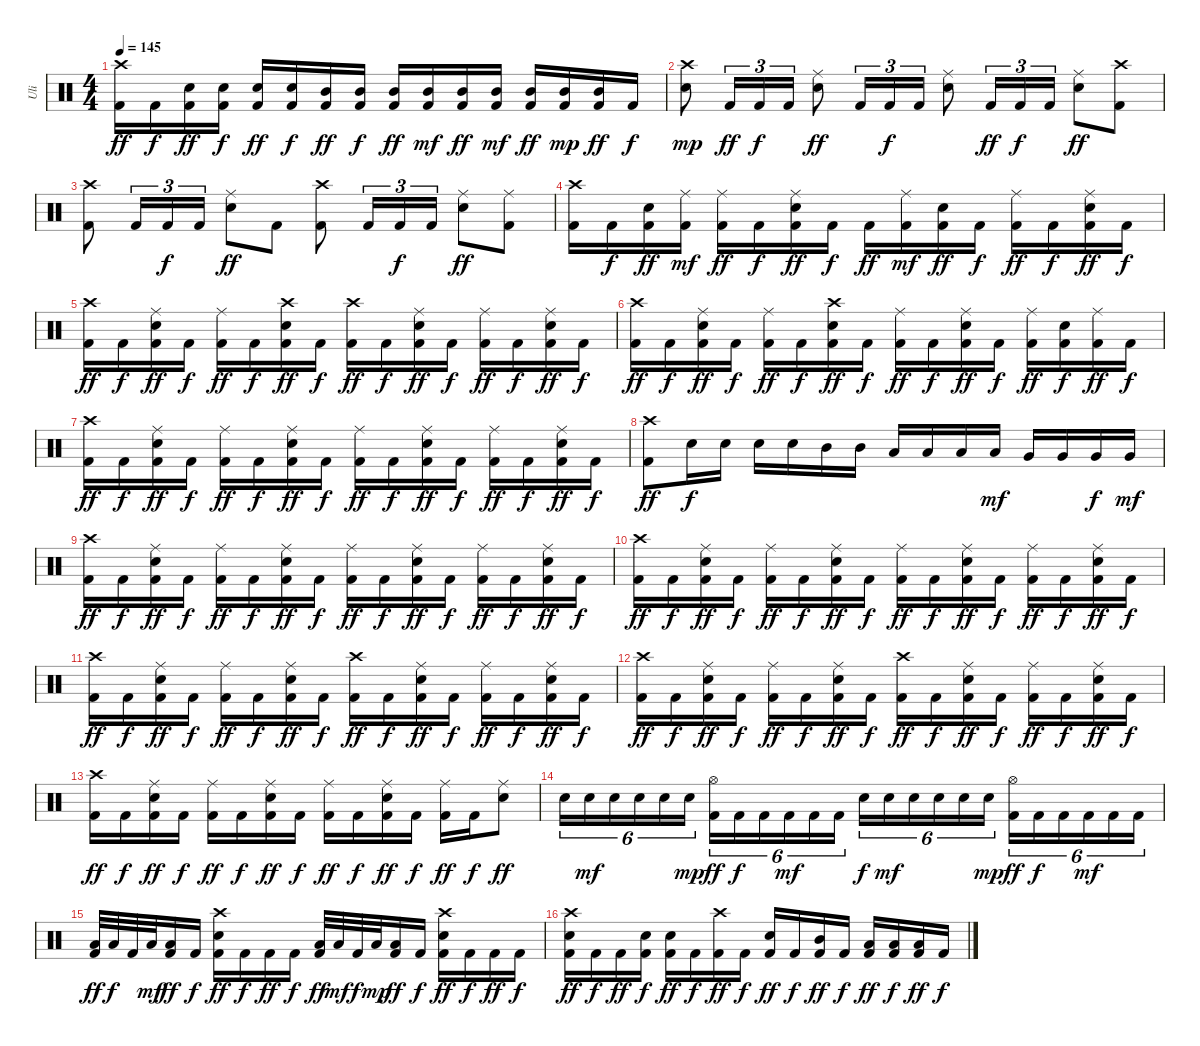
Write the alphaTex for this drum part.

\track ("Uli" "Uli") {instrument percussion}
\staff {score}
\articulation defaults
\ts (4 4)
\tempo 145
\clef neutral
\ks c
("Crash high (hit)" "Kick (hit) 2").16{dy ff} "Kick (hit) 2".16{dy f} ("Electric Snare (hit)" "Kick (hit) 2").16{dy ff} ("Electric Snare (hit)" "Kick (hit) 2").16{dy f} ("Electric Snare (hit)" "Kick (hit) 2").16{dy ff} ("Electric Snare (hit)" "Kick (hit) 2").16{dy f} ("Mid Tom (hit)" "Kick (hit) 2").16{dy ff} ("Mid Tom (hit)" "Kick (hit) 2").16{dy f} ("Mid Tom (hit)" "Kick (hit) 2").16{dy ff} ("Mid Tom (hit)" "Kick (hit) 2").16{dy mf} ("Mid Tom (hit)" "Kick (hit) 2").16{dy ff} ("Mid Tom (hit)" "Kick (hit) 2").16{dy mf} ("Mid Tom (hit)" "Kick (hit) 2").16{dy ff} ("Mid Tom (hit)" "Kick (hit) 2").16{dy mp} ("Mid Tom (hit)" "Kick (hit) 2").16{dy ff} "Kick (hit) 2".16{dy f} |
("Crash high (hit)" "Electric Snare (hit)").8{dy mp} "Kick (hit) 2".16{tu (3 2) dy ff} "Kick (hit) 2".16{tu (3 2) dy f} "Kick (hit) 2".16{tu (3 2)} ("Ride (middle)" "Electric Snare (hit)").8{dy ff} "Kick (hit) 2".16{tu (3 2)} "Kick (hit) 2".16{tu (3 2) dy f} "Kick (hit) 2".16{tu (3 2)} ("Ride (middle)" "Electric Snare (hit)").8 "Kick (hit) 2".16{tu (3 2) dy ff} "Kick (hit) 2".16{tu (3 2) dy f} "Kick (hit) 2".16{tu (3 2)} ("Ride (middle)" "Electric Snare (hit)").8{dy ff} ("Crash high (hit)" "Kick (hit) 2").8 |
("Crash high (hit)" "Kick (hit) 2").8 "Kick (hit) 2".16{tu (3 2)} "Kick (hit) 2".16{tu (3 2) dy f} "Kick (hit) 2".16{tu (3 2)} ("Ride (middle)" "Electric Snare (hit)").8{dy ff} "Kick (hit) 2".8 ("Crash high (hit)" "Kick (hit) 2").8 "Kick (hit) 2".16{tu (3 2)} "Kick (hit) 2".16{tu (3 2) dy f} "Kick (hit) 2".16{tu (3 2)} ("Ride (middle)" "Electric Snare (hit)").8{dy ff} ("Ride (middle)" "Kick (hit) 2").8 |
("Crash high (hit)" "Kick (hit) 2").16 "Kick (hit) 2".16{dy f} ("Electric Snare (hit)" "Kick (hit) 2").16{dy ff} ("Ride (middle)" "Kick (hit) 2").16{dy mf} ("Ride (middle)" "Kick (hit) 2").16{dy ff} "Kick (hit) 2".16{dy f} ("Ride (middle)" "Electric Snare (hit)" "Kick (hit) 2").16{dy ff} "Kick (hit) 2".16{dy f} "Kick (hit) 2".16{dy ff} ("Ride (middle)" "Kick (hit) 2").16{dy mf} ("Electric Snare (hit)" "Kick (hit) 2").16{dy ff} "Kick (hit) 2".16{dy f} ("Ride (middle)" "Kick (hit) 2").16{dy ff} "Kick (hit) 2".16{dy f} ("Ride (middle)" "Electric Snare (hit)" "Kick (hit) 2").16{dy ff} "Kick (hit) 2".16{dy f} |
("Crash high (hit)" "Kick (hit) 2").16{dy ff} "Kick (hit) 2".16{dy f} ("Ride (middle)" "Electric Snare (hit)" "Kick (hit) 2").16{dy ff} "Kick (hit) 2".16{dy f} ("Ride (middle)" "Kick (hit) 2").16{dy ff} "Kick (hit) 2".16{dy f} ("Crash high (hit)" "Electric Snare (hit)" "Kick (hit) 2").16{dy ff} "Kick (hit) 2".16{dy f} ("Crash high (hit)" "Kick (hit) 2").16{dy ff} "Kick (hit) 2".16{dy f} ("Ride (middle)" "Electric Snare (hit)" "Kick (hit) 2").16{dy ff} "Kick (hit) 2".16{dy f} ("Ride (middle)" "Kick (hit) 2").16{dy ff} "Kick (hit) 2".16{dy f} ("Ride (middle)" "Electric Snare (hit)" "Kick (hit) 2").16{dy ff} "Kick (hit) 2".16{dy f} |
("Crash high (hit)" "Kick (hit) 2").16{dy ff} "Kick (hit) 2".16{dy f} ("Ride (middle)" "Electric Snare (hit)" "Kick (hit) 2").16{dy ff} "Kick (hit) 2".16{dy f} ("Ride (middle)" "Kick (hit) 2").16{dy ff} "Kick (hit) 2".16{dy f} ("Crash high (hit)" "Electric Snare (hit)" "Kick (hit) 2").16{dy ff} "Kick (hit) 2".16{dy f} ("Ride (middle)" "Kick (hit) 2").16{dy ff} "Kick (hit) 2".16{dy f} ("Ride (middle)" "Electric Snare (hit)" "Kick (hit) 2").16{dy ff} "Kick (hit) 2".16{dy f} ("Ride (middle)" "Kick (hit) 2").16{dy ff} ("Electric Snare (hit)" "Kick (hit) 2").16{dy f} ("Ride (middle)" "Kick (hit) 2").16{dy ff} "Kick (hit) 2".16{dy f} |
("Crash high (hit)" "Kick (hit) 2").16{dy ff} "Kick (hit) 2".16{dy f} ("Ride (middle)" "Electric Snare (hit)" "Kick (hit) 2").16{dy ff} "Kick (hit) 2".16{dy f} ("Ride (middle)" "Kick (hit) 2").16{dy ff} "Kick (hit) 2".16{dy f} ("Ride (middle)" "Electric Snare (hit)" "Kick (hit) 2").16{dy ff} "Kick (hit) 2".16{dy f} ("Ride (middle)" "Kick (hit) 2").16{dy ff} "Kick (hit) 2".16{dy f} ("Ride (middle)" "Electric Snare (hit)" "Kick (hit) 2").16{dy ff} "Kick (hit) 2".16{dy f} ("Ride (middle)" "Kick (hit) 2").16{dy ff} "Kick (hit) 2".16{dy f} ("Ride (middle)" "Electric Snare (hit)" "Kick (hit) 2").16{dy ff} "Kick (hit) 2".16{dy f} |
("Crash high (hit)" "Kick (hit) 2").8{dy ff} "Electric Snare (hit)".16{dy f} "Electric Snare (hit)".16 "Electric Snare (hit)".16 "Electric Snare (hit)".16 "Mid Tom (hit)".16 "Mid Tom (hit)".16 "Low Tom (hit)".16 "Low Tom (hit)".16 "Low Tom (hit)".16 "Low Tom (hit)".16{dy mf} "Very Low Tom (hit)".16 "Very Low Tom (hit)".16 "Very Low Tom (hit)".16{dy f} "Very Low Tom (hit)".16{dy mf} |
("Crash high (hit)" "Kick (hit) 2").16{dy ff} "Kick (hit) 2".16{dy f} ("Ride (middle)" "Electric Snare (hit)" "Kick (hit) 2").16{dy ff} "Kick (hit) 2".16{dy f} ("Ride (middle)" "Kick (hit) 2").16{dy ff} "Kick (hit) 2".16{dy f} ("Ride (middle)" "Electric Snare (hit)" "Kick (hit) 2").16{dy ff} "Kick (hit) 2".16{dy f} ("Ride (middle)" "Kick (hit) 2").16{dy ff} "Kick (hit) 2".16{dy f} ("Ride (middle)" "Electric Snare (hit)" "Kick (hit) 2").16{dy ff} "Kick (hit) 2".16{dy f} ("Ride (middle)" "Kick (hit) 2").16{dy ff} "Kick (hit) 2".16{dy f} ("Ride (middle)" "Electric Snare (hit)" "Kick (hit) 2").16{dy ff} "Kick (hit) 2".16{dy f} |
("Crash high (hit)" "Kick (hit) 2").16{dy ff} "Kick (hit) 2".16{dy f} ("Ride (middle)" "Electric Snare (hit)" "Kick (hit) 2").16{dy ff} "Kick (hit) 2".16{dy f} ("Ride (middle)" "Kick (hit) 2").16{dy ff} "Kick (hit) 2".16{dy f} ("Ride (middle)" "Electric Snare (hit)" "Kick (hit) 2").16{dy ff} "Kick (hit) 2".16{dy f} ("Ride (middle)" "Kick (hit) 2").16{dy ff} "Kick (hit) 2".16{dy f} ("Ride (middle)" "Electric Snare (hit)" "Kick (hit) 2").16{dy ff} "Kick (hit) 2".16{dy f} ("Ride (middle)" "Kick (hit) 2").16{dy ff} "Kick (hit) 2".16{dy f} ("Ride (middle)" "Electric Snare (hit)" "Kick (hit) 2").16{dy ff} "Kick (hit) 2".16{dy f} |
("Crash high (hit)" "Kick (hit) 2").16{dy ff} "Kick (hit) 2".16{dy f} ("Ride (middle)" "Electric Snare (hit)" "Kick (hit) 2").16{dy ff} "Kick (hit) 2".16{dy f} ("Ride (middle)" "Kick (hit) 2").16{dy ff} "Kick (hit) 2".16{dy f} ("Ride (middle)" "Electric Snare (hit)" "Kick (hit) 2").16{dy ff} "Kick (hit) 2".16{dy f} ("Crash high (hit)" "Kick (hit) 2").16{dy ff} "Kick (hit) 2".16{dy f} ("Ride (middle)" "Electric Snare (hit)" "Kick (hit) 2").16{dy ff} "Kick (hit) 2".16{dy f} ("Ride (middle)" "Kick (hit) 2").16{dy ff} "Kick (hit) 2".16{dy f} ("Ride (middle)" "Electric Snare (hit)" "Kick (hit) 2").16{dy ff} "Kick (hit) 2".16{dy f} |
("Crash high (hit)" "Kick (hit) 2").16{dy ff} "Kick (hit) 2".16{dy f} ("Ride (middle)" "Electric Snare (hit)" "Kick (hit) 2").16{dy ff} "Kick (hit) 2".16{dy f} ("Ride (middle)" "Kick (hit) 2").16{dy ff} "Kick (hit) 2".16{dy f} ("Ride (middle)" "Electric Snare (hit)" "Kick (hit) 2").16{dy ff} "Kick (hit) 2".16{dy f} ("Crash high (hit)" "Kick (hit) 2").16{dy ff} "Kick (hit) 2".16{dy f} ("Ride (middle)" "Electric Snare (hit)" "Kick (hit) 2").16{dy ff} "Kick (hit) 2".16{dy f} ("Ride (middle)" "Kick (hit) 2").16{dy ff} "Kick (hit) 2".16{dy f} ("Ride (middle)" "Electric Snare (hit)" "Kick (hit) 2").16{dy ff} "Kick (hit) 2".16{dy f} |
("Crash high (hit)" "Kick (hit) 2").16{dy ff} "Kick (hit) 2".16{dy f} ("Ride (middle)" "Electric Snare (hit)" "Kick (hit) 2").16{dy ff} "Kick (hit) 2".16{dy f} ("Ride (middle)" "Kick (hit) 2").16{dy ff} "Kick (hit) 2".16{dy f} ("Ride (middle)" "Electric Snare (hit)" "Kick (hit) 2").16{dy ff} "Kick (hit) 2".16{dy f} ("Ride (middle)" "Kick (hit) 2").16{dy ff} "Kick (hit) 2".16{dy f} ("Ride (middle)" "Electric Snare (hit)" "Kick (hit) 2").16{dy ff} "Kick (hit) 2".16{dy f} ("Ride (middle)" "Kick (hit) 2").16{dy ff} "Kick (hit) 2".16{dy f} ("Ride (middle)" "Electric Snare (hit)").8{dy ff} |
"Electric Snare (hit)".16{tu (6 4)} "Electric Snare (hit)".16{tu (6 4) dy mf} "Electric Snare (hit)".16{tu (6 4)} "Electric Snare (hit)".16{tu (6 4)} "Electric Snare (hit)".16{tu (6 4)} "Electric Snare (hit)".16{tu (6 4) dy mp} ("Hi-Hat (open)" "Kick (hit) 2").16{tu (6 4) dy ff} "Kick (hit) 2".16{tu (6 4) dy f} "Kick (hit) 2".16{tu (6 4)} "Kick (hit) 2".16{tu (6 4) dy mf} "Kick (hit) 2".16{tu (6 4)} "Kick (hit) 2".16{tu (6 4)} "Electric Snare (hit)".16{tu (6 4) dy f} "Electric Snare (hit)".16{tu (6 4) dy mf} "Electric Snare (hit)".16{tu (6 4)} "Electric Snare (hit)".16{tu (6 4)} "Electric Snare (hit)".16{tu (6 4)} "Electric Snare (hit)".16{tu (6 4) dy mp} ("Hi-Hat (open)" "Kick (hit) 2").16{tu (6 4) dy ff} "Kick (hit) 2".16{tu (6 4) dy f} "Kick (hit) 2".16{tu (6 4)} "Kick (hit) 2".16{tu (6 4) dy mf} "Kick (hit) 2".16{tu (6 4)} "Kick (hit) 2".16{tu (6 4)} |
("Low Tom (hit)" "Kick (hit) 2").32{dy ff} "Low Tom (hit)".32{dy f} "Kick (hit) 2".32 "Low Tom (hit)".32{dy mf} ("Low Tom (hit)" "Kick (hit) 2").16{dy ff} "Kick (hit) 2".16{dy f} ("Crash high (hit)" "Electric Snare (hit)" "Kick (hit) 2").16{dy ff} "Kick (hit) 2".16{dy f} "Kick (hit) 2".16{dy ff} "Kick (hit) 2".16{dy f} ("Low Tom (hit)" "Kick (hit) 2").32{dy ff} "Low Tom (hit)".32{dy mf} "Kick (hit) 2".32{dy f} "Low Tom (hit)".32{dy mp} ("Low Tom (hit)" "Kick (hit) 2").16{dy ff} "Kick (hit) 2".16{dy f} ("Crash high (hit)" "Electric Snare (hit)" "Kick (hit) 2").16{dy ff} "Kick (hit) 2".16{dy f} "Kick (hit) 2".16{dy ff} "Kick (hit) 2".16{dy f} |
("Crash high (hit)" "Electric Snare (hit)" "Kick (hit) 2").16{dy ff} "Kick (hit) 2".16{dy f} "Kick (hit) 2".16{dy ff} ("Electric Snare (hit)" "Kick (hit) 2").16{dy f} ("Electric Snare (hit)" "Kick (hit) 2").16{dy ff} "Kick (hit) 2".16{dy f} ("Crash high (hit)" "Kick (hit) 2").16{dy ff} "Kick (hit) 2".16{dy f} ("Electric Snare (hit)" "Kick (hit) 2").16{dy ff} "Kick (hit) 2".16{dy f} ("Mid Tom (hit)" "Kick (hit) 2").16{dy ff} "Kick (hit) 2".16{dy f} ("Low Tom (hit)" "Kick (hit) 2").16{dy ff} ("Low Tom (hit)" "Kick (hit) 2").16{dy f} ("Low Tom (hit)" "Kick (hit) 2").16{dy ff} "Kick (hit) 2".16{dy f}
